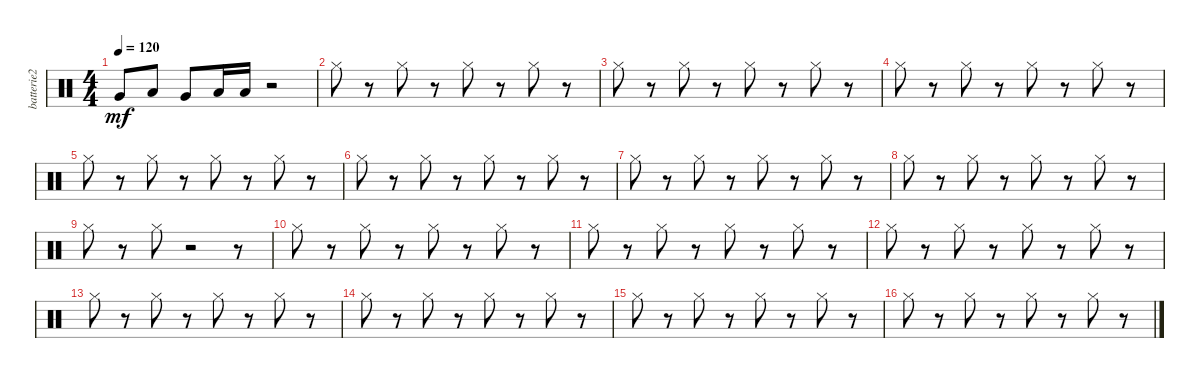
\track ("batterie2" "batterie2") {instrument percussion}
\staff {score}
\articulation defaults
\ts (4 4)
\tempo 120
\clef neutral
\ks c "Very Low Tom (hit)".8{dy mf} "Low Tom (hit)".8 "Very Low Tom (hit)".8 "Low Tom (hit)".16 "Low Tom (hit)".16
r.2 |
"Hi-Hat (closed)".8 r.8 "Hi-Hat (closed)".8 r.8 "Hi-Hat (closed)".8 r.8 "Hi-Hat (closed)".8 r.8 |
"Hi-Hat (closed)".8 r.8 "Hi-Hat (closed)".8 r.8 "Hi-Hat (closed)".8 r.8 "Hi-Hat (closed)".8 r.8 |
"Hi-Hat (closed)".8 r.8 "Hi-Hat (closed)".8 r.8 "Hi-Hat (closed)".8 r.8 "Hi-Hat (closed)".8 r.8 |
"Hi-Hat (closed)".8 r.8 "Hi-Hat (closed)".8 r.8 "Hi-Hat (closed)".8 r.8 "Hi-Hat (closed)".8 r.8 |
"Hi-Hat (closed)".8 r.8 "Hi-Hat (closed)".8 r.8 "Hi-Hat (closed)".8 r.8 "Hi-Hat (closed)".8 r.8 |
"Hi-Hat (closed)".8 r.8 "Hi-Hat (closed)".8 r.8 "Hi-Hat (closed)".8 r.8 "Hi-Hat (closed)".8 r.8 |
"Hi-Hat (closed)".8 r.8 "Hi-Hat (closed)".8 r.8 "Hi-Hat (closed)".8 r.8 "Hi-Hat (closed)".8 r.8 |
"Hi-Hat (closed)".8 r.8 "Hi-Hat (closed)".8 r.2 r.8 |
"Hi-Hat (closed)".8 r.8 "Hi-Hat (closed)".8 r.8 "Hi-Hat (closed)".8 r.8 "Hi-Hat (closed)".8 r.8 |
"Hi-Hat (closed)".8 r.8 "Hi-Hat (closed)".8 r.8 "Hi-Hat (closed)".8 r.8 "Hi-Hat (closed)".8 r.8 |
"Hi-Hat (closed)".8 r.8 "Hi-Hat (closed)".8 r.8 "Hi-Hat (closed)".8 r.8 "Hi-Hat (closed)".8 r.8 |
"Hi-Hat (closed)".8 r.8 "Hi-Hat (closed)".8 r.8 "Hi-Hat (closed)".8 r.8 "Hi-Hat (closed)".8 r.8 |
"Hi-Hat (closed)".8 r.8 "Hi-Hat (closed)".8 r.8 "Hi-Hat (closed)".8 r.8 "Hi-Hat (closed)".8 r.8 |
"Hi-Hat (closed)".8 r.8 "Hi-Hat (closed)".8 r.8 "Hi-Hat (closed)".8 r.8 "Hi-Hat (closed)".8 r.8 |
"Hi-Hat (closed)".8 r.8 "Hi-Hat (closed)".8 r.8 "Hi-Hat (closed)".8 r.8 "Hi-Hat (closed)".8 r.8
